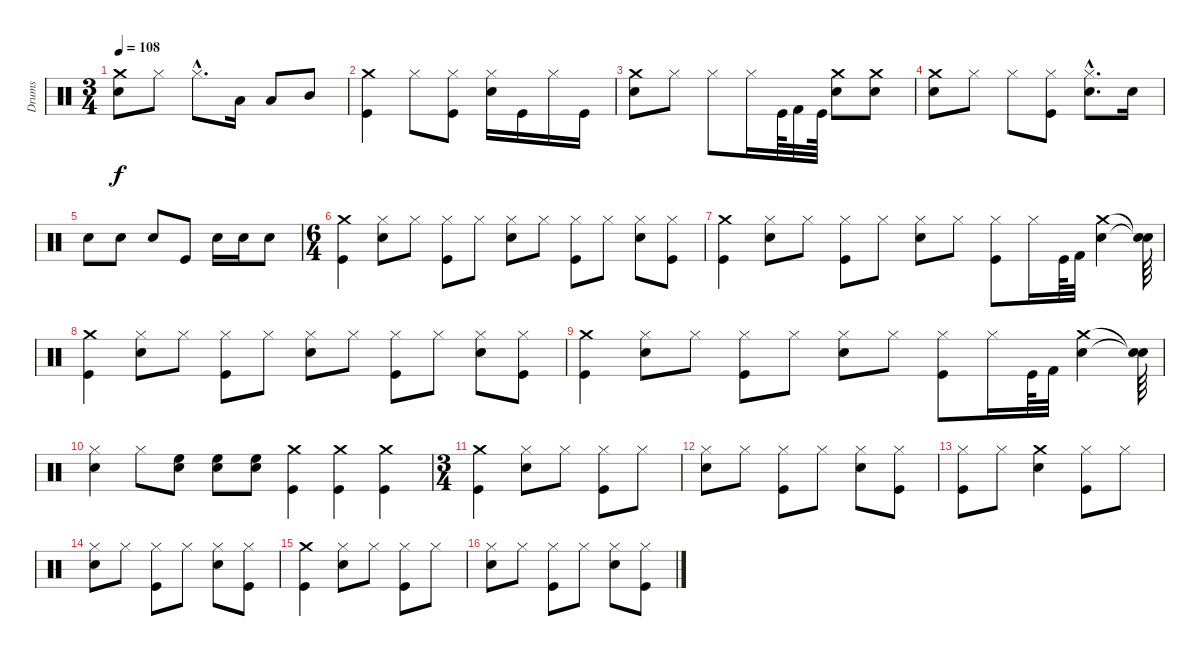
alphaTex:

\track ("Drums" "Drums") {instrument percussion}
\staff {score}
\articulation defaults
\ts (3 4)
\tempo 108
\clef neutral
\ks c
("Crash medium (hit)" "Snare (hit) 2").8{dy f} "Hi-Hat (closed)".8 "Hi-Hat (closed)"{hac}.8{d} "Low Tom (hit)".16 "Low Tom (hit)".8 "Mid Tom (hit)".8 |
("Crash medium (hit)" "Kick (hit)").4 "Hi-Hat (closed)".8 ("Kick (hit)" "Hi-Hat (closed)").8 ("Hi-Hat (closed)" "Snare (hit) 2").16 "Kick (hit)".16 "Hi-Hat (closed)".16 "Kick (hit)".16 |
("Crash medium (hit)" "Snare (hit) 2").8 "Hi-Hat (closed)".8 "Hi-Hat (closed)".8 "Hi-Hat (closed)".16 "Kick (hit)".64 "Kick (hit) 2".32 "Kick (hit)".64 ("Crash medium (hit)" "Snare (hit) 2").8 ("Crash medium (hit)" "Snare (hit) 2").8 |
("Crash medium (hit)" "Snare (hit) 2").8 "Hi-Hat (closed)".8 "Hi-Hat (closed)".8 ("Kick (hit)" "Hi-Hat (closed)").8 ("Hi-Hat (closed)"{hac} "Snare (hit) 2"{hac}).8{d} "Snare (hit) 2".16 |
"Snare (hit) 2".8 "Snare (hit) 2".8 "Snare (hit) 2".8 "Kick (hit)".8 "Snare (hit) 2".16 "Snare (hit) 2".16 "Snare (hit) 2".8 |
\ts (6 4)
("Kick (hit)" "Crash medium (hit)").4 ("Hi-Hat (closed)" "Snare (hit) 2").8 "Hi-Hat (closed)".8 ("Hi-Hat (closed)" "Kick (hit)").8 "Hi-Hat (closed)".8 ("Snare (hit) 2" "Hi-Hat (closed)").8 "Hi-Hat (closed)".8 ("Hi-Hat (closed)" "Kick (hit)").8 "Hi-Hat (closed)".8 ("Snare (hit) 2" "Hi-Hat (closed)").8 ("Kick (hit)" "Hi-Hat (closed)").8 |
("Crash medium (hit)" "Kick (hit)").4 ("Hi-Hat (closed)" "Snare (hit) 2").8 "Hi-Hat (closed)".8 ("Hi-Hat (closed)" "Kick (hit)").8 "Hi-Hat (closed)".8 ("Snare (hit) 2" "Hi-Hat (closed)").8 "Hi-Hat (closed)".8 ("Hi-Hat (closed)" "Kick (hit)").8 "Hi-Hat (closed)".16 "Kick (hit)".64 "Kick (hit) 2".32 ("Crash medium (hit)" "Snare (hit) 2").4 ("Snare (hit)"{t} "Snare (hit)"{t}).64 |
("Kick (hit)" "Crash medium (hit)").4 ("Snare (hit) 2" "Hi-Hat (closed)").8 "Hi-Hat (closed)".8 ("Hi-Hat (closed)" "Kick (hit)").8 "Hi-Hat (closed)".8 ("Snare (hit) 2" "Hi-Hat (closed)").8 "Hi-Hat (closed)".8 ("Hi-Hat (closed)" "Kick (hit)").8 "Hi-Hat (closed)".8 ("Snare (hit) 2" "Hi-Hat (closed)").8 ("Kick (hit)" "Hi-Hat (closed)").8 |
("Crash medium (hit)" "Kick (hit)").4 ("Hi-Hat (closed)" "Snare (hit) 2").8 "Hi-Hat (closed)".8 ("Hi-Hat (closed)" "Kick (hit)").8 "Hi-Hat (closed)".8 ("Snare (hit) 2" "Hi-Hat (closed)").8 "Hi-Hat (closed)".8 ("Hi-Hat (closed)" "Kick (hit)").8 "Hi-Hat (closed)".16 "Kick (hit)".64 "Kick (hit) 2".32 ("Crash medium (hit)" "Snare (hit) 2").4 ("Snare (hit)"{t} "Snare (hit)"{t}).64 |
("Hi-Hat (closed)" "Snare (hit) 2").4 "Hi-Hat (closed)".8 ("High Floor Tom (hit)" "Snare (hit) 2").8 ("High Floor Tom (hit)" "Snare (hit) 2").8 ("High Floor Tom (hit)" "Snare (hit) 2").8 ("Kick (hit)" "Crash medium (hit)").4 ("Kick (hit)" "Crash medium (hit)").4 ("Kick (hit)" "Crash medium (hit)").4 |
\ts (3 4)
("Kick (hit)" "Crash medium (hit)").4 ("Snare (hit) 2" "Hi-Hat (closed)").8 "Hi-Hat (closed)".8 ("Hi-Hat (closed)" "Kick (hit)").8 "Hi-Hat (closed)".8 |
("Snare (hit) 2" "Hi-Hat (closed)").8 "Hi-Hat (closed)".8 ("Hi-Hat (closed)" "Kick (hit)").8 "Hi-Hat (closed)".8 ("Snare (hit) 2" "Hi-Hat (closed)").8 ("Kick (hit)" "Hi-Hat (closed)").8 |
("Hi-Hat (closed)" "Kick (hit)").8 "Hi-Hat (closed)".8 ("Crash medium (hit)" "Snare (hit) 2").4 ("Hi-Hat (closed)" "Kick (hit)").8 "Hi-Hat (closed)".8 |
("Hi-Hat (closed)" "Snare (hit) 2").8 "Hi-Hat (closed)".8 ("Hi-Hat (closed)" "Kick (hit)").8 "Hi-Hat (closed)".8 ("Hi-Hat (closed)" "Snare (hit) 2").8 ("Kick (hit)" "Hi-Hat (closed)").8 |
("Kick (hit)" "Crash medium (hit)").4 ("Snare (hit) 2" "Hi-Hat (closed)").8 "Hi-Hat (closed)".8 ("Hi-Hat (closed)" "Kick (hit)").8 "Hi-Hat (closed)".8 |
("Snare (hit) 2" "Hi-Hat (closed)").8 "Hi-Hat (closed)".8 ("Hi-Hat (closed)" "Kick (hit)").8 "Hi-Hat (closed)".8 ("Snare (hit) 2" "Hi-Hat (closed)").8 ("Kick (hit)" "Hi-Hat (closed)").8
